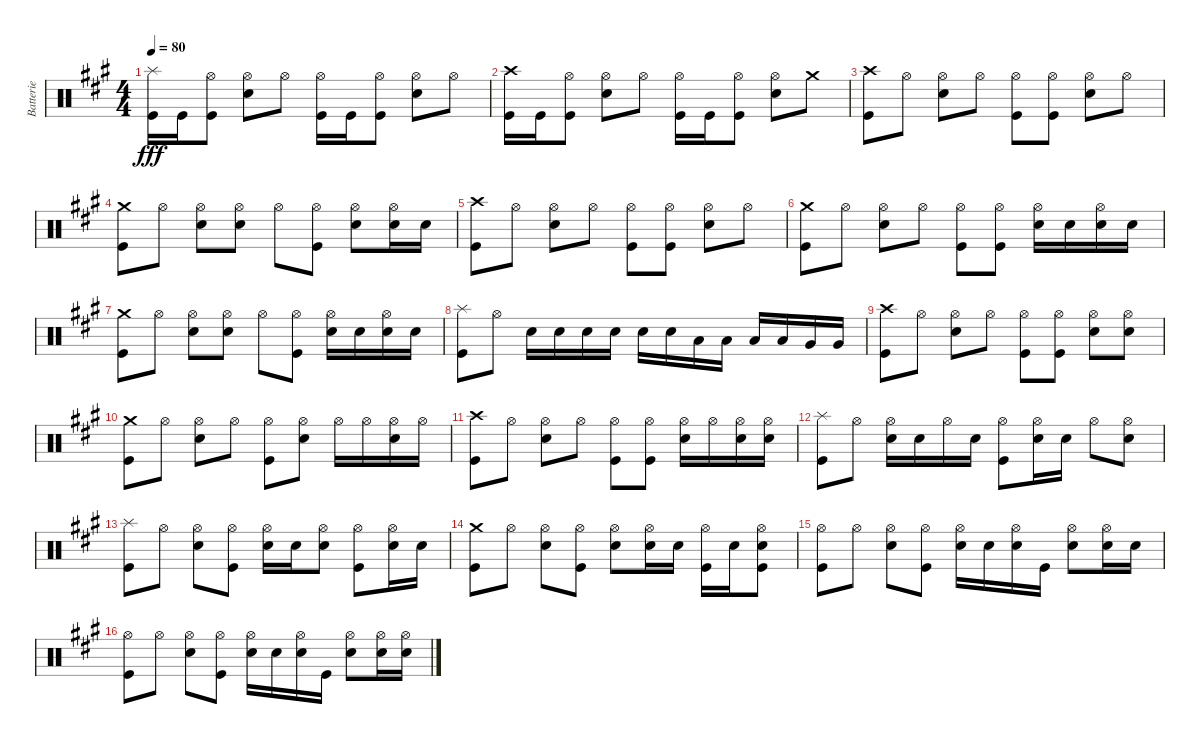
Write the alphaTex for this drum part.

\track ("Batterie" "Batterie") {instrument percussion}
\staff {score}
\articulation defaults
\ts (4 4)
\tempo 80
\clef neutral
\ks a
("Splash (hit)" "Kick (hit)").16{dy fff} "Kick (hit)".16 ("Hi-Hat (open)" "Kick (hit)").8 ("Hi-Hat (open)" "Snare (hit) 2").8 "Hi-Hat (open)".8 ("Hi-Hat (open)" "Kick (hit)").16 "Kick (hit)".16 ("Hi-Hat (open)" "Kick (hit)").8 ("Hi-Hat (open)" "Snare (hit) 2").8 "Hi-Hat (open)".8 |
("Crash high (hit)" "Kick (hit)").16 "Kick (hit)".16 ("Hi-Hat (open)" "Kick (hit)").8 ("Hi-Hat (open)" "Snare (hit) 2").8 "Hi-Hat (open)".8 ("Hi-Hat (open)" "Kick (hit)").16 "Kick (hit)".16 ("Hi-Hat (open)" "Kick (hit)").8 ("Hi-Hat (open)" "Snare (hit) 2").8 "Crash medium (hit)".8 |
("Crash high (hit)" "Kick (hit)").8 "Hi-Hat (open)".8 ("Hi-Hat (open)" "Snare (hit) 2").8 "Hi-Hat (open)".8 ("Hi-Hat (open)" "Kick (hit)").8 ("Hi-Hat (open)" "Kick (hit)").8 ("Hi-Hat (open)" "Snare (hit) 2").8 "Hi-Hat (open)".8 |
("Crash medium (hit)" "Kick (hit)").8 "Hi-Hat (open)".8 ("Hi-Hat (open)" "Snare (hit) 2").8 ("Hi-Hat (open)" "Snare (hit) 2").8 "Hi-Hat (open)".8 ("Hi-Hat (open)" "Kick (hit)").8 ("Hi-Hat (open)" "Snare (hit) 2").8 ("Hi-Hat (open)" "Snare (hit) 2").16 "Snare (hit) 2".16 |
("Crash high (hit)" "Kick (hit)").8 "Hi-Hat (open)".8 ("Hi-Hat (open)" "Snare (hit) 2").8 "Hi-Hat (open)".8 ("Hi-Hat (open)" "Kick (hit)").8 ("Hi-Hat (open)" "Kick (hit)").8 ("Hi-Hat (open)" "Snare (hit) 2").8 "Hi-Hat (open)".8 |
("Crash medium (hit)" "Kick (hit)").8 "Hi-Hat (open)".8 ("Hi-Hat (open)" "Snare (hit) 2").8 "Hi-Hat (open)".8 ("Hi-Hat (open)" "Kick (hit)").8 ("Hi-Hat (open)" "Kick (hit)").8 ("Hi-Hat (open)" "Snare (hit) 2").16 "Snare (hit) 2".16 ("Hi-Hat (open)" "Snare (hit) 2").16 "Snare (hit) 2".16 |
("Crash medium (hit)" "Kick (hit)").8 "Hi-Hat (open)".8 ("Hi-Hat (open)" "Snare (hit) 2").8 ("Hi-Hat (open)" "Snare (hit) 2").8 "Hi-Hat (open)".8 ("Hi-Hat (open)" "Kick (hit)").8 ("Hi-Hat (open)" "Snare (hit) 2").16 "Snare (hit) 2".16 ("Hi-Hat (open)" "Snare (hit) 2").16 "Snare (hit) 2".16 |
("Splash (hit)" "Kick (hit)").8 "Hi-Hat (open)".8 "Snare (hit) 2".16 "Snare (hit) 2".16 "Snare (hit) 2".16 "Snare (hit) 2".16 "Snare (hit) 2".16 "Snare (hit) 2".16 "Low Tom (hit)".16 "Low Tom (hit)".16 "Low Tom (hit)".16 "Low Tom (hit)".16 "Very Low Tom (hit)".16 "Very Low Tom (hit)".16 |
("Crash high (hit)" "Kick (hit)").8 "Hi-Hat (open)".8 ("Hi-Hat (open)" "Snare (hit) 2").8 "Hi-Hat (open)".8 ("Hi-Hat (open)" "Kick (hit)").8 ("Hi-Hat (open)" "Kick (hit)").8 ("Hi-Hat (open)" "Snare (hit) 2").8 ("Hi-Hat (open)" "Snare (hit) 2").8 |
("Crash medium (hit)" "Kick (hit)").8 "Hi-Hat (open)".8 ("Hi-Hat (open)" "Snare (hit) 2").8 "Hi-Hat (open)".8 ("Hi-Hat (open)" "Kick (hit)").8 ("Hi-Hat (open)" "Snare (hit) 2").8 "Hi-Hat (open)".16 "Hi-Hat (open)".16 ("Hi-Hat (open)" "Snare (hit) 2").16 "Hi-Hat (open)".16 |
("Crash high (hit)" "Kick (hit)").8 "Hi-Hat (open)".8 ("Hi-Hat (open)" "Snare (hit) 2").8 "Hi-Hat (open)".8 ("Hi-Hat (open)" "Kick (hit)").8 ("Hi-Hat (open)" "Kick (hit)").8 ("Hi-Hat (open)" "Snare (hit) 2").16 "Hi-Hat (open)".16 ("Hi-Hat (open)" "Snare (hit) 2").16 ("Hi-Hat (open)" "Snare (hit) 2").16 |
("Splash (hit)" "Kick (hit)").8 "Hi-Hat (open)".8 ("Hi-Hat (open)" "Snare (hit) 2").16 "Snare (hit) 2".16 "Hi-Hat (open)".16 "Snare (hit) 2".16 ("Hi-Hat (open)" "Kick (hit)").8 ("Hi-Hat (open)" "Snare (hit) 2").16 "Snare (hit) 2".16 "Hi-Hat (open)".8 ("Hi-Hat (open)" "Snare (hit) 2").8 |
("Splash (hit)" "Kick (hit)").8 "Hi-Hat (open)".8 ("Hi-Hat (open)" "Snare (hit) 2").8 ("Hi-Hat (open)" "Kick (hit)").8 ("Hi-Hat (open)" "Snare (hit) 2").16 "Snare (hit) 2".16 ("Hi-Hat (open)" "Snare (hit) 2").8 ("Hi-Hat (open)" "Kick (hit)").8 ("Hi-Hat (open)" "Snare (hit) 2").16 "Snare (hit) 2".16 |
("Crash medium (hit)" "Kick (hit)").8 "Hi-Hat (open)".8 ("Hi-Hat (open)" "Snare (hit) 2").8 ("Hi-Hat (open)" "Kick (hit)").8 ("Hi-Hat (open)" "Snare (hit) 2").8 ("Hi-Hat (open)" "Snare (hit) 2").16 "Snare (hit) 2".16 ("Hi-Hat (open)" "Kick (hit)").16 "Snare (hit) 2".16 ("Hi-Hat (open)" "Snare (hit) 2" "Kick (hit)").8 |
("Hi-Hat (open)" "Kick (hit)").8 "Hi-Hat (open)".8 ("Hi-Hat (open)" "Snare (hit) 2").8 ("Hi-Hat (open)" "Kick (hit)").8 ("Hi-Hat (open)" "Snare (hit) 2").16 "Snare (hit) 2".16 ("Hi-Hat (open)" "Snare (hit) 2").16 "Kick (hit)".16 ("Hi-Hat (open)" "Snare (hit) 2").8 ("Hi-Hat (open)" "Snare (hit) 2").16 "Snare (hit) 2".16 |
("Hi-Hat (open)" "Kick (hit)").8 "Hi-Hat (open)".8 ("Hi-Hat (open)" "Snare (hit) 2").8 ("Hi-Hat (open)" "Kick (hit)").8 ("Hi-Hat (open)" "Snare (hit) 2").16 "Snare (hit) 2".16 ("Hi-Hat (open)" "Snare (hit) 2").16 "Kick (hit)".16 ("Hi-Hat (open)" "Snare (hit) 2").8 ("Hi-Hat (open)" "Snare (hit) 2").16 ("Hi-Hat (open)" "Snare (hit) 2").16
